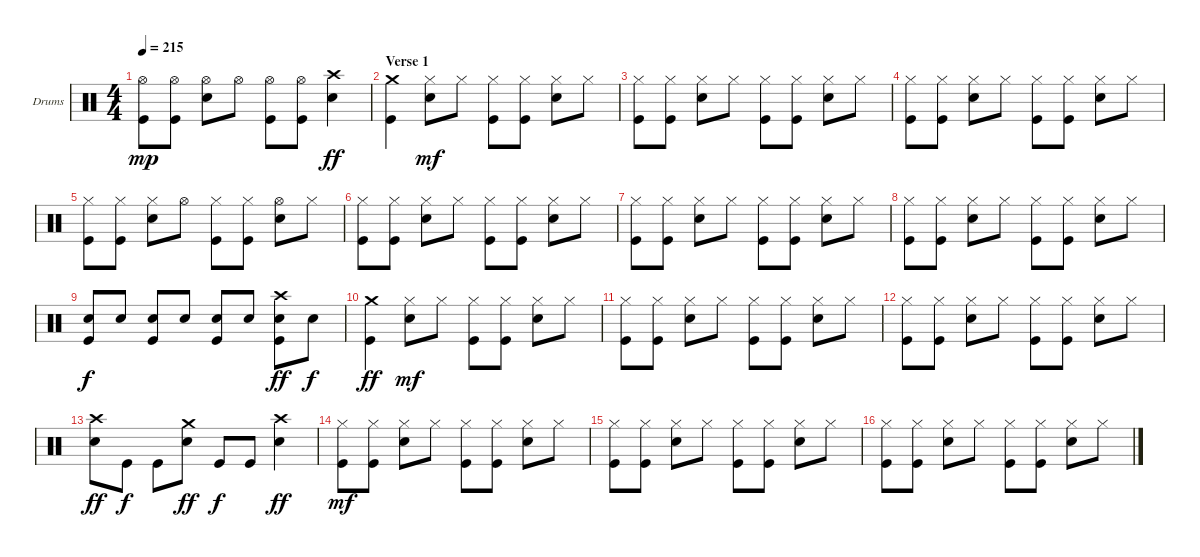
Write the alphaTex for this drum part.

\bracketExtendMode groupsimilarinstruments
\firstSystemTrackNameOrientation horizontal
\otherSystemsTrackNameOrientation horizontal
\track ("Drumkit" "Drums") {instrument percussion}
\staff {score}
\articulation defaults
\ts (4 4)
\tempo 215
\clef neutral
\ks c
("Hi-Hat (open)" "Kick (hit)").8{dy mp} ("Hi-Hat (open)" "Kick (hit)").8 ("Hi-Hat (open)" "Snare (hit) 2").8 "Hi-Hat (open)".8 ("Hi-Hat (open)" "Kick (hit)").8 ("Hi-Hat (open)" "Kick (hit)").8 ("Crash high (hit)" "Snare (hit) 2").4{dy ff} |
\section ("" "Verse 1")
("Crash medium (hit)" "Kick (hit)").4 ("Hi-Hat (closed)" "Snare (hit) 2").8{dy mf} "Hi-Hat (closed)".8 ("Hi-Hat (closed)" "Kick (hit)").8 ("Hi-Hat (closed)" "Kick (hit)").8 ("Hi-Hat (closed)" "Snare (hit) 2").8 "Hi-Hat (closed)".8 |
("Hi-Hat (closed)" "Kick (hit)").8 ("Hi-Hat (closed)" "Kick (hit)").8 ("Hi-Hat (closed)" "Snare (hit) 2").8 "Hi-Hat (closed)".8 ("Hi-Hat (closed)" "Kick (hit)").8 ("Hi-Hat (closed)" "Kick (hit)").8 ("Hi-Hat (closed)" "Snare (hit) 2").8 "Hi-Hat (closed)".8 |
("Hi-Hat (closed)" "Kick (hit)").8 ("Hi-Hat (closed)" "Kick (hit)").8 ("Hi-Hat (closed)" "Snare (hit) 2").8 "Hi-Hat (closed)".8 ("Hi-Hat (closed)" "Kick (hit)").8 ("Hi-Hat (closed)" "Kick (hit)").8 ("Hi-Hat (closed)" "Snare (hit) 2").8 "Hi-Hat (closed)".8 |
("Hi-Hat (closed)" "Kick (hit)").8 ("Hi-Hat (closed)" "Kick (hit)").8 ("Hi-Hat (closed)" "Snare (hit) 2").8 "Hi-Hat (open)".8 ("Hi-Hat (closed)" "Kick (hit)").8 ("Hi-Hat (closed)" "Kick (hit)").8 ("Hi-Hat (open)" "Snare (hit) 2").8 "Hi-Hat (closed)".8 |
("Hi-Hat (closed)" "Kick (hit)").8 ("Hi-Hat (closed)" "Kick (hit)").8 ("Hi-Hat (closed)" "Snare (hit) 2").8 "Hi-Hat (closed)".8 ("Hi-Hat (closed)" "Kick (hit)").8 ("Hi-Hat (closed)" "Kick (hit)").8 ("Hi-Hat (closed)" "Snare (hit) 2").8 "Hi-Hat (closed)".8 |
("Hi-Hat (closed)" "Kick (hit)").8 ("Hi-Hat (closed)" "Kick (hit)").8 ("Hi-Hat (closed)" "Snare (hit) 2").8 "Hi-Hat (closed)".8 ("Hi-Hat (closed)" "Kick (hit)").8 ("Hi-Hat (closed)" "Kick (hit)").8 ("Hi-Hat (closed)" "Snare (hit) 2").8 "Hi-Hat (closed)".8 |
("Hi-Hat (closed)" "Kick (hit)").8 ("Hi-Hat (closed)" "Kick (hit)").8 ("Hi-Hat (closed)" "Snare (hit) 2").8 "Hi-Hat (closed)".8 ("Hi-Hat (closed)" "Kick (hit)").8 ("Hi-Hat (closed)" "Kick (hit)").8 ("Hi-Hat (closed)" "Snare (hit) 2").8 "Hi-Hat (closed)".8 |
("Snare (hit) 2" "Kick (hit)").8{dy f} "Snare (hit) 2".8 ("Snare (hit) 2" "Kick (hit)").8 "Snare (hit) 2".8 ("Snare (hit) 2" "Kick (hit)").8 "Snare (hit) 2".8 ("Crash high (hit)" "Snare (hit) 2" "Kick (hit)").8{dy ff} "Snare (hit) 2".8{dy f} |
("Crash medium (hit)" "Kick (hit)").4{dy ff} ("Hi-Hat (closed)" "Snare (hit) 2").8{dy mf} "Hi-Hat (closed)".8 ("Hi-Hat (closed)" "Kick (hit)").8 ("Hi-Hat (closed)" "Kick (hit)").8 ("Hi-Hat (closed)" "Snare (hit) 2").8 "Hi-Hat (closed)".8 |
("Hi-Hat (closed)" "Kick (hit)").8 ("Hi-Hat (closed)" "Kick (hit)").8 ("Hi-Hat (closed)" "Snare (hit) 2").8 "Hi-Hat (closed)".8 ("Hi-Hat (closed)" "Kick (hit)").8 ("Hi-Hat (closed)" "Kick (hit)").8 ("Hi-Hat (closed)" "Snare (hit) 2").8 "Hi-Hat (closed)".8 |
("Hi-Hat (closed)" "Kick (hit)").8 ("Hi-Hat (closed)" "Kick (hit)").8 ("Hi-Hat (closed)" "Snare (hit) 2").8 "Hi-Hat (closed)".8 ("Hi-Hat (closed)" "Kick (hit)").8 ("Hi-Hat (closed)" "Kick (hit)").8 ("Hi-Hat (closed)" "Snare (hit) 2").8 "Hi-Hat (closed)".8 |
("Crash high (hit)" "Snare (hit) 2").8{dy ff} "Kick (hit)".8{dy f} "Kick (hit)".8 ("Crash medium (hit)" "Snare (hit) 2").8{dy ff} "Kick (hit)".8{dy f} "Kick (hit)".8 ("Crash high (hit)" "Snare (hit) 2").4{dy ff} |
("Hi-Hat (closed)" "Kick (hit)").8{dy mf} ("Hi-Hat (closed)" "Kick (hit)").8 ("Hi-Hat (closed)" "Snare (hit) 2").8 "Hi-Hat (closed)".8 ("Hi-Hat (closed)" "Kick (hit)").8 ("Hi-Hat (closed)" "Kick (hit)").8 ("Hi-Hat (closed)" "Snare (hit) 2").8 "Hi-Hat (closed)".8 |
("Hi-Hat (closed)" "Kick (hit)").8 ("Hi-Hat (closed)" "Kick (hit)").8 ("Hi-Hat (closed)" "Snare (hit) 2").8 "Hi-Hat (closed)".8 ("Hi-Hat (closed)" "Kick (hit)").8 ("Hi-Hat (closed)" "Kick (hit)").8 ("Hi-Hat (closed)" "Snare (hit) 2").8 "Hi-Hat (closed)".8 |
("Hi-Hat (closed)" "Kick (hit)").8 ("Hi-Hat (closed)" "Kick (hit)").8 ("Hi-Hat (closed)" "Snare (hit) 2").8 "Hi-Hat (closed)".8 ("Hi-Hat (closed)" "Kick (hit)").8 ("Hi-Hat (closed)" "Kick (hit)").8 ("Hi-Hat (closed)" "Snare (hit) 2").8 "Hi-Hat (closed)".8
